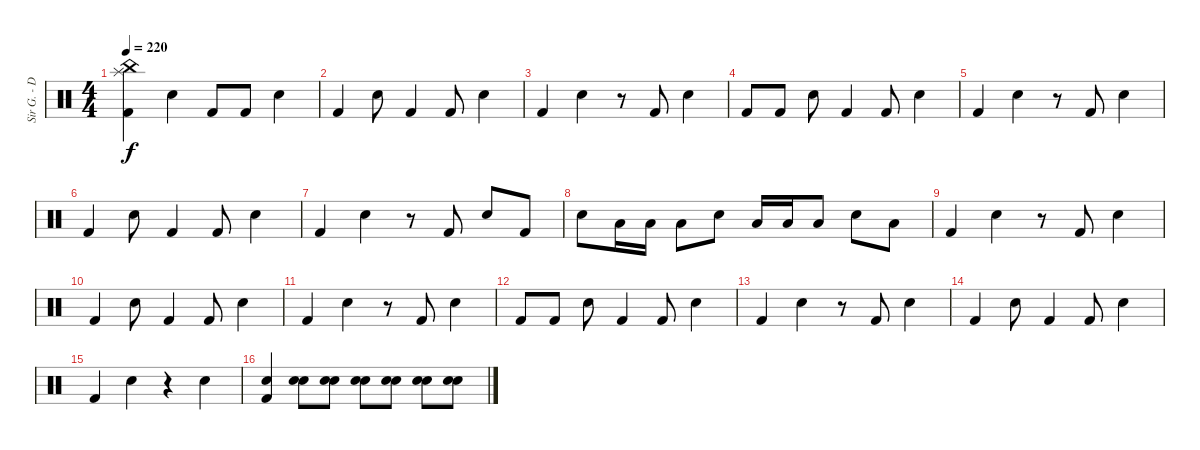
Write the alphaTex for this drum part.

\track ("Sir G. - Drums" "Sir G. - D") {instrument percussion}
\staff {score}
\articulation defaults
\ts (4 4)
\tempo 220
\clef neutral
\ks c
("China (hit)" "Splash (hit)" "Kick (hit) 2").4{dy f} "Snare (hit) 2".4 "Kick (hit) 2".8 "Kick (hit) 2".8 "Snare (hit) 2".4 |
"Kick (hit) 2".4 "Snare (hit) 2".8 "Kick (hit) 2".4 "Kick (hit) 2".8 "Snare (hit) 2".4 |
"Kick (hit) 2".4 "Snare (hit) 2".4 r.8 "Kick (hit) 2".8 "Snare (hit) 2".4 |
"Kick (hit) 2".8 "Kick (hit) 2".8 "Snare (hit) 2".8 "Kick (hit) 2".4 "Kick (hit) 2".8 "Snare (hit) 2".4 |
"Kick (hit) 2".4 "Snare (hit) 2".4 r.8 "Kick (hit) 2".8 "Snare (hit) 2".4 |
"Kick (hit) 2".4 "Snare (hit) 2".8 "Kick (hit) 2".4 "Kick (hit) 2".8 "Snare (hit) 2".4 |
"Kick (hit) 2".4 "Snare (hit) 2".4 r.8 "Kick (hit) 2".8 "Snare (hit) 2".8 "Kick (hit) 2".8 |
"Snare (hit) 2".8 "Low Floor Tom (hit)".16 "Low Floor Tom (hit)".16 "Low Floor Tom (hit)".8 "Snare (hit) 2".8 "Low Floor Tom (hit)".16 "Low Floor Tom (hit)".16 "Low Floor Tom (hit)".8 "Snare (hit) 2".8 "Low Floor Tom (hit)".8 |
"Kick (hit) 2".4 "Snare (hit) 2".4 r.8 "Kick (hit) 2".8 "Snare (hit) 2".4 |
"Kick (hit) 2".4 "Snare (hit) 2".8 "Kick (hit) 2".4 "Kick (hit) 2".8 "Snare (hit) 2".4 |
"Kick (hit) 2".4 "Snare (hit) 2".4 r.8 "Kick (hit) 2".8 "Snare (hit) 2".4 |
"Kick (hit) 2".8 "Kick (hit) 2".8 "Snare (hit) 2".8 "Kick (hit) 2".4 "Kick (hit) 2".8 "Snare (hit) 2".4 |
"Kick (hit) 2".4 "Snare (hit) 2".4 r.8 "Kick (hit) 2".8 "Snare (hit) 2".4 |
"Kick (hit) 2".4 "Snare (hit) 2".8 "Kick (hit) 2".4 "Kick (hit) 2".8 "Snare (hit) 2".4 |
"Kick (hit) 2".4 "Snare (hit) 2".4 r.4 "Snare (hit) 2".4 |
("Snare (hit) 2" "Kick (hit) 2").4 ("Snare (hit) 2" "Snare (hit) 2").8 ("Snare (hit) 2" "Snare (hit) 2").8 ("Snare (hit) 2" "Snare (hit) 2").8 ("Snare (hit) 2" "Snare (hit) 2").8 ("Snare (hit) 2" "Snare (hit) 2").8 ("Snare (hit) 2" "Snare (hit) 2").8
